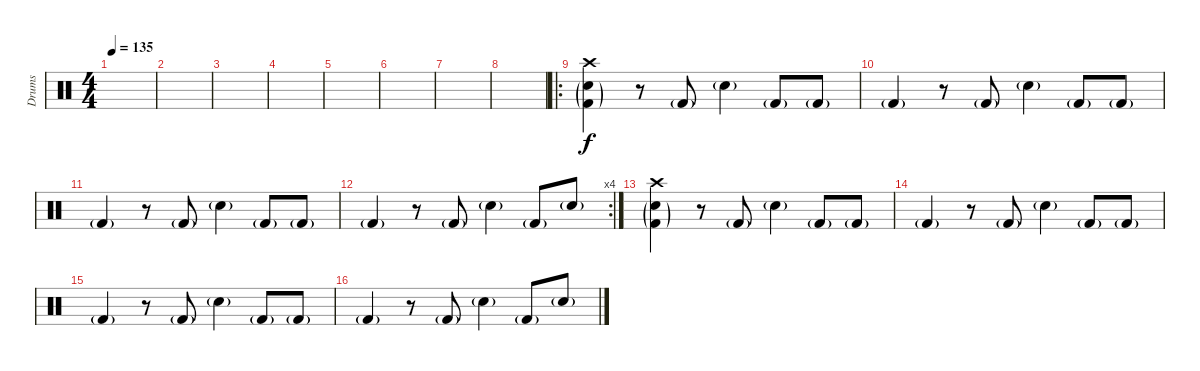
\track ("Drums" "Drums") {instrument percussion}
\staff {score}
\articulation defaults
\ts (4 4)
\tempo 135
\clef neutral
\ks c
|
|
|
|
|
|
|
|
\ro
("Crash high (hit)" "Snare (hit) 2"{g} "Kick (hit) 2"{g}).4 r.8 "Kick (hit) 2"{g}.8 "Snare (hit) 2"{g}.4 "Kick (hit) 2"{g}.8 "Kick (hit) 2"{g}.8 |
"Kick (hit) 2"{g}.4 r.8 "Kick (hit) 2"{g}.8 "Snare (hit) 2"{g}.4 "Kick (hit) 2"{g}.8 "Kick (hit) 2"{g}.8 |
"Kick (hit) 2"{g}.4 r.8 "Kick (hit) 2"{g}.8 "Snare (hit) 2"{g}.4 "Kick (hit) 2"{g}.8 "Kick (hit) 2"{g}.8 |
\rc 4 "Kick (hit) 2"{g}.4
r.8 "Kick (hit) 2"{g}.8 "Snare (hit) 2"{g}.4 "Kick (hit) 2"{g}.8 "Snare (hit) 2"{g}.8 |
("Crash high (hit)" "Snare (hit) 2"{g} "Kick (hit) 2"{g}).4 r.8 "Kick (hit) 2"{g}.8 "Snare (hit) 2"{g}.4 "Kick (hit) 2"{g}.8 "Kick (hit) 2"{g}.8 |
"Kick (hit) 2"{g}.4 r.8 "Kick (hit) 2"{g}.8 "Snare (hit) 2"{g}.4 "Kick (hit) 2"{g}.8 "Kick (hit) 2"{g}.8 |
"Kick (hit) 2"{g}.4 r.8 "Kick (hit) 2"{g}.8 "Snare (hit) 2"{g}.4 "Kick (hit) 2"{g}.8 "Kick (hit) 2"{g}.8 |
"Kick (hit) 2"{g}.4 r.8 "Kick (hit) 2"{g}.8 "Snare (hit) 2"{g}.4 "Kick (hit) 2"{g}.8 "Snare (hit) 2"{g}.8
